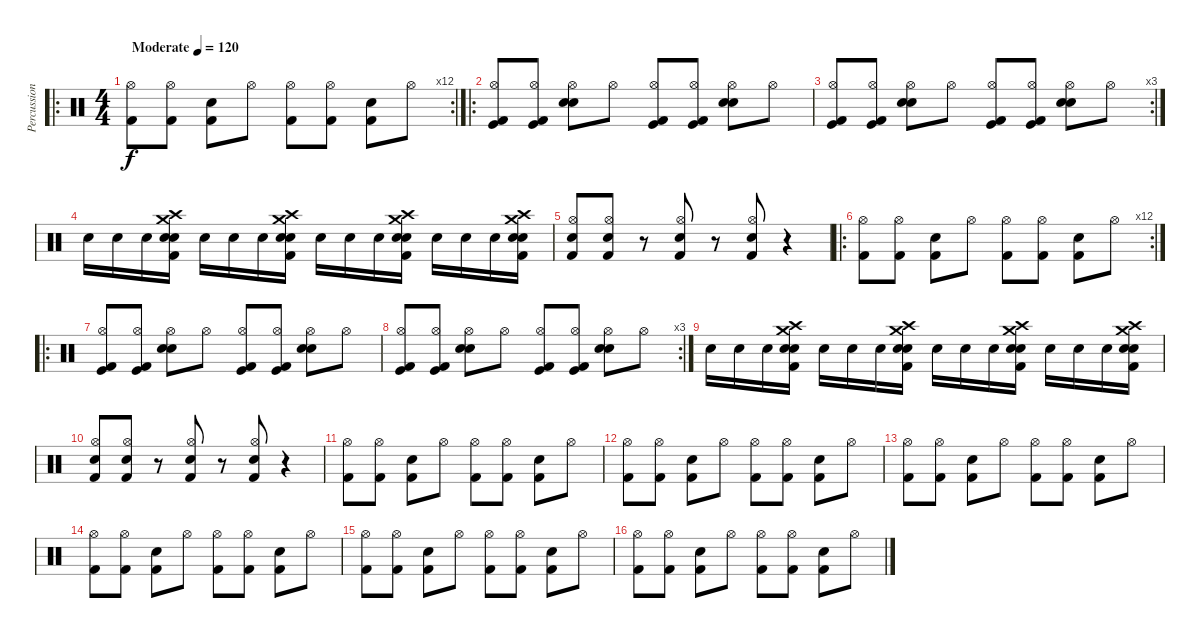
\track ("Percussion" "Percussion") {instrument percussion}
\staff {score}
\articulation defaults
\ro
\rc 12
\ts (4 4)
\tempo (120 "Moderate")
\clef neutral
\ks c
("Kick (hit) 2" "Hi-Hat (open)").8{dy f} ("Kick (hit) 2" "Hi-Hat (open)").8 ("Kick (hit) 2" "Electric Snare (hit)").8 "Hi-Hat (open)".8 ("Kick (hit) 2" "Hi-Hat (open)").8 ("Kick (hit) 2" "Hi-Hat (open)").8 ("Kick (hit) 2" "Electric Snare (hit)").8 "Hi-Hat (open)".8 |
\ro
("Kick (hit)" "Kick (hit) 2" "Hi-Hat (open)").8 ("Kick (hit)" "Kick (hit) 2" "Hi-Hat (open)").8 ("Snare (hit) 2" "Electric Snare (hit)" "Hi-Hat (open)").8 "Hi-Hat (open)".8 ("Kick (hit)" "Kick (hit) 2" "Hi-Hat (open)").8 ("Kick (hit)" "Kick (hit) 2" "Hi-Hat (open)").8 ("Snare (hit) 2" "Electric Snare (hit)" "Hi-Hat (open)").8 "Hi-Hat (open)".8 |
\rc 3
("Kick (hit)" "Kick (hit) 2" "Hi-Hat (open)").8 ("Kick (hit)" "Kick (hit) 2" "Hi-Hat (open)").8 ("Snare (hit) 2" "Electric Snare (hit)" "Hi-Hat (open)").8 "Hi-Hat (open)".8 ("Kick (hit)" "Kick (hit) 2" "Hi-Hat (open)").8 ("Kick (hit)" "Kick (hit) 2" "Hi-Hat (open)").8 ("Snare (hit) 2" "Electric Snare (hit)" "Hi-Hat (open)").8 "Hi-Hat (open)".8 |
"Electric Snare (hit)".16 "Electric Snare (hit)".16 "Electric Snare (hit)".16 ("Crash medium (hit)" "Snare (hit) 2" "Kick (hit) 2" "Crash high (hit)" "Electric Snare (hit)").16 "Electric Snare (hit)".16 "Electric Snare (hit)".16 "Electric Snare (hit)".16 ("Crash medium (hit)" "Crash high (hit)" "Kick (hit) 2" "Snare (hit) 2" "Electric Snare (hit)").16 "Electric Snare (hit)".16 "Electric Snare (hit)".16 "Electric Snare (hit)".16 ("Crash medium (hit)" "Crash high (hit)" "Kick (hit) 2" "Snare (hit) 2" "Electric Snare (hit)").16 "Electric Snare (hit)".16 "Electric Snare (hit)".16 "Electric Snare (hit)".16 ("Crash medium (hit)" "Crash high (hit)" "Kick (hit) 2" "Snare (hit) 2" "Electric Snare (hit)").16 |
("Kick (hit) 2" "Electric Snare (hit)" "Hi-Hat (open)").8 ("Kick (hit) 2" "Electric Snare (hit)" "Hi-Hat (open)").8 r.8 ("Kick (hit) 2" "Electric Snare (hit)" "Hi-Hat (open)").8 r.8 ("Kick (hit) 2" "Electric Snare (hit)" "Hi-Hat (open)").8 r.4 |
\ro
\rc 12
("Kick (hit) 2" "Hi-Hat (open)").8 ("Kick (hit) 2" "Hi-Hat (open)").8 ("Kick (hit) 2" "Electric Snare (hit)").8 "Hi-Hat (open)".8 ("Kick (hit) 2" "Hi-Hat (open)").8 ("Kick (hit) 2" "Hi-Hat (open)").8 ("Kick (hit) 2" "Electric Snare (hit)").8 "Hi-Hat (open)".8 |
\ro
("Kick (hit)" "Kick (hit) 2" "Hi-Hat (open)").8 ("Kick (hit)" "Kick (hit) 2" "Hi-Hat (open)").8 ("Snare (hit) 2" "Electric Snare (hit)" "Hi-Hat (open)").8 "Hi-Hat (open)".8 ("Kick (hit)" "Kick (hit) 2" "Hi-Hat (open)").8 ("Kick (hit)" "Kick (hit) 2" "Hi-Hat (open)").8 ("Snare (hit) 2" "Electric Snare (hit)" "Hi-Hat (open)").8 "Hi-Hat (open)".8 |
\rc 3
("Kick (hit)" "Kick (hit) 2" "Hi-Hat (open)").8 ("Kick (hit)" "Kick (hit) 2" "Hi-Hat (open)").8 ("Snare (hit) 2" "Electric Snare (hit)" "Hi-Hat (open)").8 "Hi-Hat (open)".8 ("Kick (hit)" "Kick (hit) 2" "Hi-Hat (open)").8 ("Kick (hit)" "Kick (hit) 2" "Hi-Hat (open)").8 ("Snare (hit) 2" "Electric Snare (hit)" "Hi-Hat (open)").8 "Hi-Hat (open)".8 |
"Electric Snare (hit)".16 "Electric Snare (hit)".16 "Electric Snare (hit)".16 ("Crash medium (hit)" "Snare (hit) 2" "Kick (hit) 2" "Crash high (hit)" "Electric Snare (hit)").16 "Electric Snare (hit)".16 "Electric Snare (hit)".16 "Electric Snare (hit)".16 ("Crash medium (hit)" "Crash high (hit)" "Kick (hit) 2" "Snare (hit) 2" "Electric Snare (hit)").16 "Electric Snare (hit)".16 "Electric Snare (hit)".16 "Electric Snare (hit)".16 ("Crash medium (hit)" "Crash high (hit)" "Kick (hit) 2" "Snare (hit) 2" "Electric Snare (hit)").16 "Electric Snare (hit)".16 "Electric Snare (hit)".16 "Electric Snare (hit)".16 ("Crash medium (hit)" "Crash high (hit)" "Kick (hit) 2" "Snare (hit) 2" "Electric Snare (hit)").16 |
("Kick (hit) 2" "Electric Snare (hit)" "Hi-Hat (open)").8 ("Kick (hit) 2" "Electric Snare (hit)" "Hi-Hat (open)").8 r.8 ("Kick (hit) 2" "Electric Snare (hit)" "Hi-Hat (open)").8 r.8 ("Kick (hit) 2" "Electric Snare (hit)" "Hi-Hat (open)").8 r.4 |
("Kick (hit) 2" "Hi-Hat (open)").8 ("Kick (hit) 2" "Hi-Hat (open)").8 ("Kick (hit) 2" "Electric Snare (hit)").8 "Hi-Hat (open)".8 ("Kick (hit) 2" "Hi-Hat (open)").8 ("Kick (hit) 2" "Hi-Hat (open)").8 ("Kick (hit) 2" "Electric Snare (hit)").8 "Hi-Hat (open)".8 |
("Kick (hit) 2" "Hi-Hat (open)").8 ("Kick (hit) 2" "Hi-Hat (open)").8 ("Kick (hit) 2" "Electric Snare (hit)").8 "Hi-Hat (open)".8 ("Kick (hit) 2" "Hi-Hat (open)").8 ("Kick (hit) 2" "Hi-Hat (open)").8 ("Kick (hit) 2" "Electric Snare (hit)").8 "Hi-Hat (open)".8 |
("Kick (hit) 2" "Hi-Hat (open)").8 ("Kick (hit) 2" "Hi-Hat (open)").8 ("Kick (hit) 2" "Electric Snare (hit)").8 "Hi-Hat (open)".8 ("Kick (hit) 2" "Hi-Hat (open)").8 ("Kick (hit) 2" "Hi-Hat (open)").8 ("Kick (hit) 2" "Electric Snare (hit)").8 "Hi-Hat (open)".8 |
("Kick (hit) 2" "Hi-Hat (open)").8 ("Kick (hit) 2" "Hi-Hat (open)").8 ("Kick (hit) 2" "Electric Snare (hit)").8 "Hi-Hat (open)".8 ("Kick (hit) 2" "Hi-Hat (open)").8 ("Kick (hit) 2" "Hi-Hat (open)").8 ("Kick (hit) 2" "Electric Snare (hit)").8 "Hi-Hat (open)".8 |
("Kick (hit) 2" "Hi-Hat (open)").8 ("Kick (hit) 2" "Hi-Hat (open)").8 ("Kick (hit) 2" "Electric Snare (hit)").8 "Hi-Hat (open)".8 ("Kick (hit) 2" "Hi-Hat (open)").8 ("Kick (hit) 2" "Hi-Hat (open)").8 ("Kick (hit) 2" "Electric Snare (hit)").8 "Hi-Hat (open)".8 |
("Kick (hit) 2" "Hi-Hat (open)").8 ("Kick (hit) 2" "Hi-Hat (open)").8 ("Kick (hit) 2" "Electric Snare (hit)").8 "Hi-Hat (open)".8 ("Kick (hit) 2" "Hi-Hat (open)").8 ("Kick (hit) 2" "Hi-Hat (open)").8 ("Kick (hit) 2" "Electric Snare (hit)").8 "Hi-Hat (open)".8
